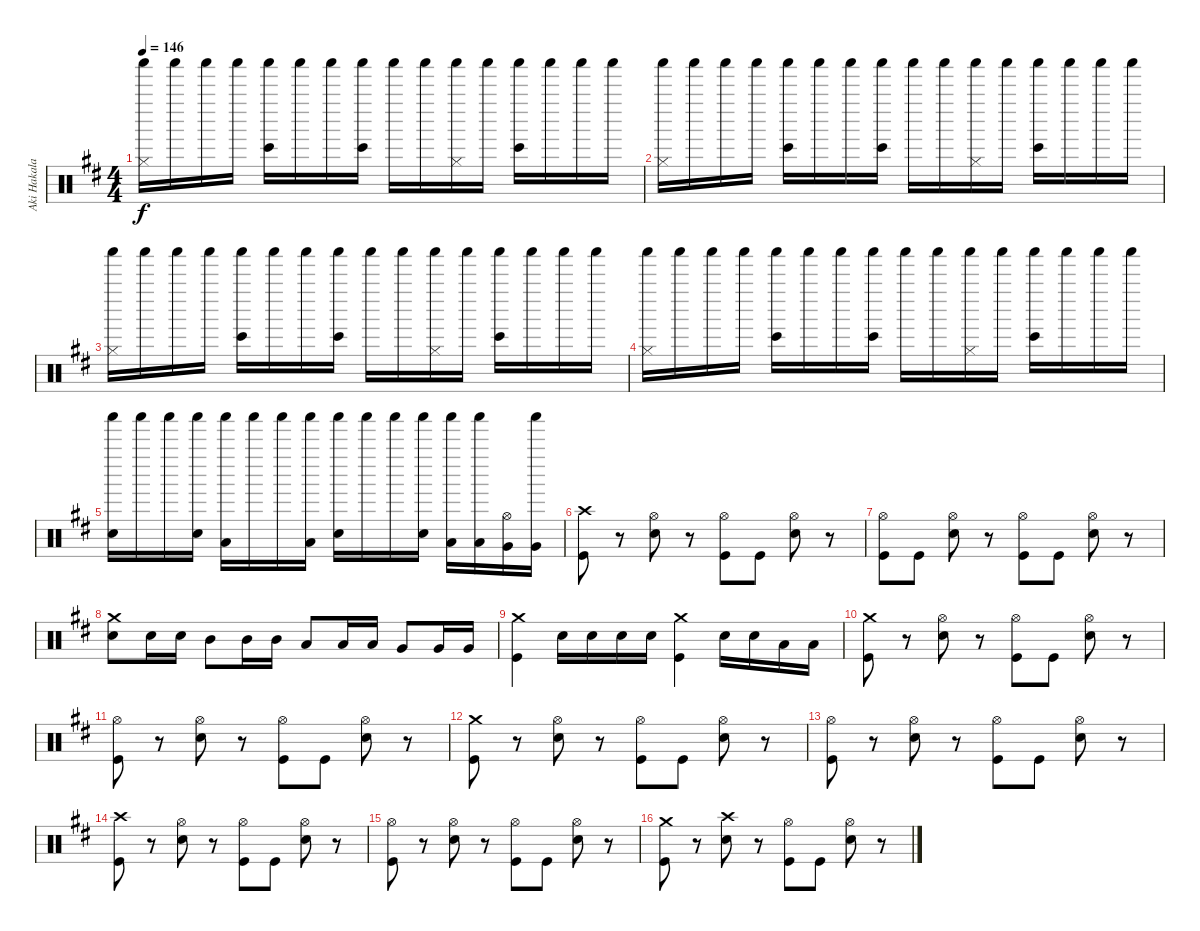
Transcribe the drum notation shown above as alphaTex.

\track ("Aki Hakala" "Aki Hakala") {instrument percussion}
\staff {score}
\articulation defaults
\ts (4 4)
\tempo 146
\clef neutral
\ks d
("Shaker (hit)" "Hi-Hat (closed)").16{dy f} "Shaker (hit)".16 "Shaker (hit)".16 "Shaker (hit)".16 ("Shaker (hit)" "Bongo High (hit)").16 "Shaker (hit)".16 "Shaker (hit)".16 ("Shaker (hit)" "Bongo High (hit)").16 "Shaker (hit)".16 "Shaker (hit)".16 ("Shaker (hit)" "Hi-Hat (closed)").16 "Shaker (hit)".16 ("Shaker (hit)" "Bongo High (hit)").16 "Shaker (hit)".16 "Shaker (hit)".16 "Shaker (hit)".16 |
("Shaker (hit)" "Hi-Hat (closed)").16 "Shaker (hit)".16 "Shaker (hit)".16 "Shaker (hit)".16 ("Shaker (hit)" "Bongo High (hit)").16 "Shaker (hit)".16 "Shaker (hit)".16 ("Shaker (hit)" "Bongo High (hit)").16 "Shaker (hit)".16 "Shaker (hit)".16 ("Shaker (hit)" "Hi-Hat (closed)").16 "Shaker (hit)".16 ("Shaker (hit)" "Bongo High (hit)").16 "Shaker (hit)".16 "Shaker (hit)".16 "Shaker (hit)".16 |
("Shaker (hit)" "Hi-Hat (closed)").16 "Shaker (hit)".16 "Shaker (hit)".16 "Shaker (hit)".16 ("Shaker (hit)" "Bongo High (hit)").16 "Shaker (hit)".16 "Shaker (hit)".16 ("Shaker (hit)" "Bongo High (hit)").16 "Shaker (hit)".16 "Shaker (hit)".16 ("Shaker (hit)" "Hi-Hat (closed)").16 "Shaker (hit)".16 ("Shaker (hit)" "Bongo High (hit)").16 "Shaker (hit)".16 "Shaker (hit)".16 "Shaker (hit)".16 |
("Shaker (hit)" "Hi-Hat (closed)").16 "Shaker (hit)".16 "Shaker (hit)".16 "Shaker (hit)".16 ("Shaker (hit)" "Bongo High (hit)").16 "Shaker (hit)".16 "Shaker (hit)".16 ("Shaker (hit)" "Bongo High (hit)").16 "Shaker (hit)".16 "Shaker (hit)".16 ("Shaker (hit)" "Hi-Hat (closed)").16 "Shaker (hit)".16 ("Shaker (hit)" "Bongo High (hit)").16 "Shaker (hit)".16 "Shaker (hit)".16 "Shaker (hit)".16 |
("Shaker (hit)" "Electric Snare (hit)").16 "Shaker (hit)".16 "Shaker (hit)".16 ("Shaker (hit)" "Electric Snare (hit)").16 ("Shaker (hit)" "Low Tom (hit)").16 "Shaker (hit)".16 "Shaker (hit)".16 ("Shaker (hit)" "Low Tom (hit)").16 ("Shaker (hit)" "Electric Snare (hit)").16 "Shaker (hit)".16 "Shaker (hit)".16 ("Shaker (hit)" "Electric Snare (hit)").16 ("Shaker (hit)" "Low Tom (hit)").16 ("Shaker (hit)" "Low Tom (hit)").16 ("Hi-Hat (open)" "Very Low Tom (hit)").16 ("Shaker (hit)" "Very Low Tom (hit)").16 |
("Crash high (hit)" "Kick (hit)").8 r.8 ("Hi-Hat (open)" "Electric Snare (hit)").8 r.8 ("Hi-Hat (open)" "Kick (hit)").8 "Kick (hit)".8 ("Hi-Hat (open)" "Electric Snare (hit)").8 r.8 |
("Hi-Hat (open)" "Kick (hit)").8 "Kick (hit)".8 ("Hi-Hat (open)" "Electric Snare (hit)").8 r.8 ("Hi-Hat (open)" "Kick (hit)").8 "Kick (hit)".8 ("Hi-Hat (open)" "Electric Snare (hit)").8 r.8 |
("Crash medium (hit)" "Electric Snare (hit)").8 "Electric Snare (hit)".16 "Electric Snare (hit)".16 "Mid Tom (hit)".8 "Mid Tom (hit)".16 "Mid Tom (hit)".16 "Low Tom (hit)".8 "Low Tom (hit)".16 "Low Tom (hit)".16 "Very Low Tom (hit)".8 "Very Low Tom (hit)".16 "Very Low Tom (hit)".16 |
("Crash medium (hit)" "Kick (hit)").4 "Electric Snare (hit)".16 "Electric Snare (hit)".16 "Electric Snare (hit)".16 "Electric Snare (hit)".16 ("Crash medium (hit)" "Kick (hit)").4 "Electric Snare (hit)".16 "Electric Snare (hit)".16 "Low Tom (hit)".16 "Low Tom (hit)".16 |
("Crash medium (hit)" "Kick (hit)").8 r.8 ("Hi-Hat (open)" "Electric Snare (hit)").8 r.8 ("Hi-Hat (open)" "Kick (hit)").8 "Kick (hit)".8 ("Hi-Hat (open)" "Electric Snare (hit)").8 r.8 |
("Hi-Hat (open)" "Kick (hit)").8 r.8 ("Hi-Hat (open)" "Electric Snare (hit)").8 r.8 ("Hi-Hat (open)" "Kick (hit)").8 "Kick (hit)".8 ("Hi-Hat (open)" "Electric Snare (hit)").8 r.8 |
("Crash medium (hit)" "Kick (hit)").8 r.8 ("Hi-Hat (open)" "Electric Snare (hit)").8 r.8 ("Hi-Hat (open)" "Kick (hit)").8 "Kick (hit)".8 ("Hi-Hat (open)" "Electric Snare (hit)").8 r.8 |
("Hi-Hat (open)" "Kick (hit)").8 r.8 ("Hi-Hat (open)" "Electric Snare (hit)").8 r.8 ("Hi-Hat (open)" "Kick (hit)").8 "Kick (hit)".8 ("Hi-Hat (open)" "Electric Snare (hit)").8 r.8 |
("Crash high (hit)" "Kick (hit)").8 r.8 ("Hi-Hat (open)" "Electric Snare (hit)").8 r.8 ("Hi-Hat (open)" "Kick (hit)").8 "Kick (hit)".8 ("Hi-Hat (open)" "Electric Snare (hit)").8 r.8 |
("Hi-Hat (open)" "Kick (hit)").8 r.8 ("Hi-Hat (open)" "Electric Snare (hit)").8 r.8 ("Hi-Hat (open)" "Kick (hit)").8 "Kick (hit)".8 ("Hi-Hat (open)" "Electric Snare (hit)").8 r.8 |
("Crash medium (hit)" "Kick (hit)").8 r.8 ("Crash high (hit)" "Electric Snare (hit)").8 r.8 ("Hi-Hat (open)" "Kick (hit)").8 "Kick (hit)".8 ("Hi-Hat (open)" "Electric Snare (hit)").8 r.8
